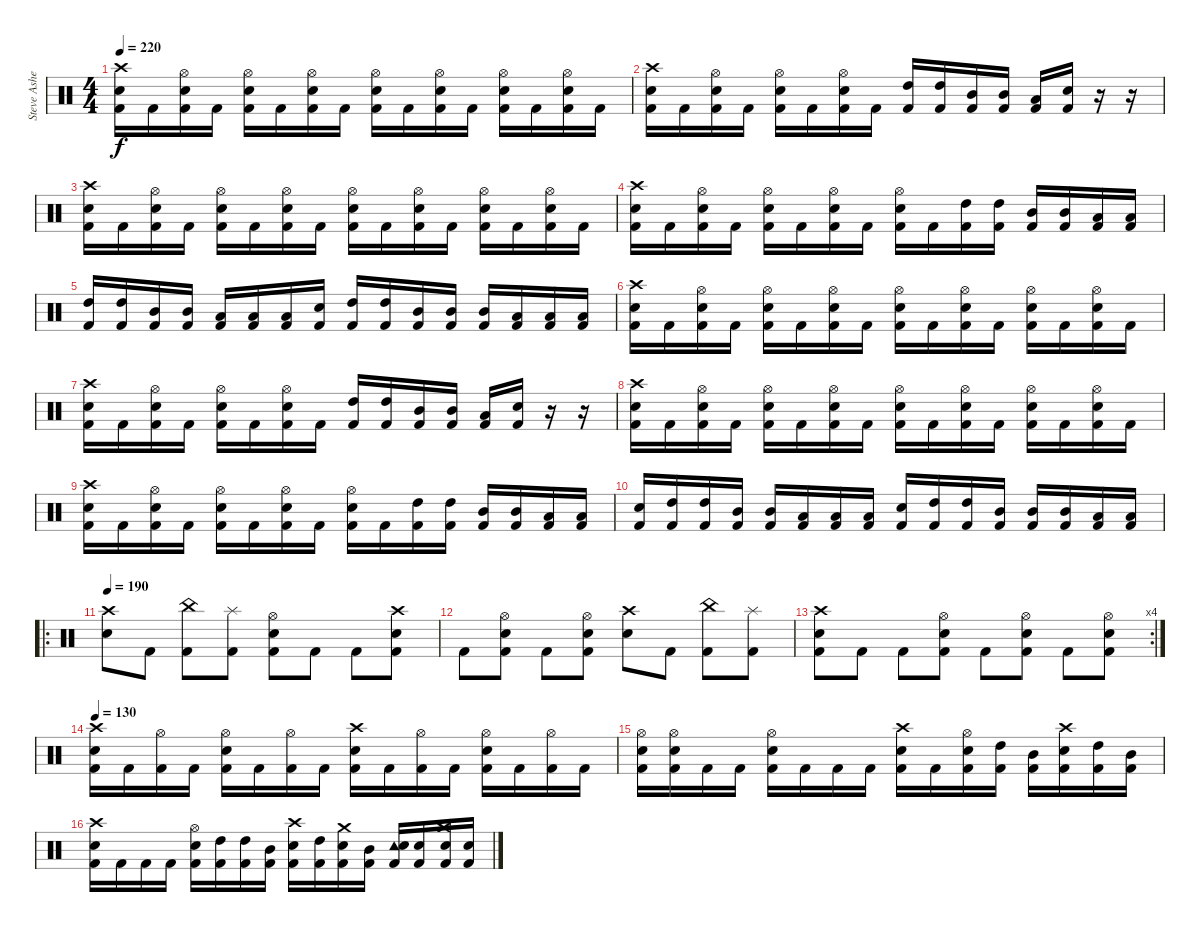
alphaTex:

\track ("Steve Asheim" "Steve Ashe") {instrument percussion}
\staff {score}
\articulation defaults
\ts (4 4)
\tempo 220
\clef neutral
\ks c
("Crash high (hit)" "Electric Snare (hit)" "Kick (hit) 2").16{dy f} "Kick (hit) 2".16 ("Hi-Hat (open)" "Electric Snare (hit)" "Kick (hit) 2").16 "Kick (hit) 2".16 ("Hi-Hat (open)" "Electric Snare (hit)" "Kick (hit) 2").16 "Kick (hit) 2".16 ("Hi-Hat (open)" "Electric Snare (hit)" "Kick (hit) 2").16 "Kick (hit) 2".16 ("Hi-Hat (open)" "Electric Snare (hit)" "Kick (hit) 2").16 "Kick (hit) 2".16 ("Hi-Hat (open)" "Electric Snare (hit)" "Kick (hit) 2").16 "Kick (hit) 2".16 ("Hi-Hat (open)" "Electric Snare (hit)" "Kick (hit) 2").16 "Kick (hit) 2".16 ("Hi-Hat (open)" "Electric Snare (hit)" "Kick (hit) 2").16 "Kick (hit) 2".16 |
("Crash high (hit)" "Electric Snare (hit)" "Kick (hit) 2").16 "Kick (hit) 2".16 ("Hi-Hat (open)" "Electric Snare (hit)" "Kick (hit) 2").16 "Kick (hit) 2".16 ("Hi-Hat (open)" "Electric Snare (hit)" "Kick (hit) 2").16 "Kick (hit) 2".16 ("Hi-Hat (open)" "Electric Snare (hit)" "Kick (hit) 2").16 "Kick (hit) 2".16 ("High Tom (hit)" "Kick (hit) 2").16 ("High Tom (hit)" "Kick (hit) 2").16 ("Mid Tom (hit)" "Kick (hit) 2").16 ("Mid Tom (hit)" "Kick (hit) 2").16 ("Low Tom (hit)" "Kick (hit) 2").16 ("Electric Snare (hit)" "Kick (hit) 2").16 r.16 r.16 |
("Crash high (hit)" "Electric Snare (hit)" "Kick (hit) 2").16 "Kick (hit) 2".16 ("Hi-Hat (open)" "Electric Snare (hit)" "Kick (hit) 2").16 "Kick (hit) 2".16 ("Hi-Hat (open)" "Electric Snare (hit)" "Kick (hit) 2").16 "Kick (hit) 2".16 ("Hi-Hat (open)" "Electric Snare (hit)" "Kick (hit) 2").16 "Kick (hit) 2".16 ("Hi-Hat (open)" "Electric Snare (hit)" "Kick (hit) 2").16 "Kick (hit) 2".16 ("Hi-Hat (open)" "Electric Snare (hit)" "Kick (hit) 2").16 "Kick (hit) 2".16 ("Hi-Hat (open)" "Electric Snare (hit)" "Kick (hit) 2").16 "Kick (hit) 2".16 ("Hi-Hat (open)" "Electric Snare (hit)" "Kick (hit) 2").16 "Kick (hit) 2".16 |
("Crash high (hit)" "Electric Snare (hit)" "Kick (hit) 2").16 "Kick (hit) 2".16 ("Hi-Hat (open)" "Electric Snare (hit)" "Kick (hit) 2").16 "Kick (hit) 2".16 ("Hi-Hat (open)" "Electric Snare (hit)" "Kick (hit) 2").16 "Kick (hit) 2".16 ("Hi-Hat (open)" "Electric Snare (hit)" "Kick (hit) 2").16 "Kick (hit) 2".16 ("Hi-Hat (open)" "Electric Snare (hit)" "Kick (hit) 2").16 "Kick (hit) 2".16 ("High Tom (hit)" "Kick (hit) 2").16 ("High Tom (hit)" "Kick (hit) 2").16 ("Mid Tom (hit)" "Kick (hit) 2").16 ("Mid Tom (hit)" "Kick (hit) 2").16 ("Low Tom (hit)" "Kick (hit) 2").16 ("Low Tom (hit)" "Kick (hit) 2").16 |
("High Tom (hit)" "Kick (hit) 2").16 ("High Tom (hit)" "Kick (hit) 2").16 ("Mid Tom (hit)" "Kick (hit) 2").16 ("Mid Tom (hit)" "Kick (hit) 2").16 ("Low Tom (hit)" "Kick (hit) 2").16 ("Low Tom (hit)" "Kick (hit) 2").16 ("Low Tom (hit)" "Kick (hit) 2").16 ("Electric Snare (hit)" "Kick (hit) 2").16 ("High Tom (hit)" "Kick (hit) 2").16 ("High Tom (hit)" "Kick (hit) 2").16 ("Mid Tom (hit)" "Kick (hit) 2").16 ("Mid Tom (hit)" "Kick (hit) 2").16 ("Mid Tom (hit)" "Kick (hit) 2").16 ("Low Tom (hit)" "Kick (hit) 2").16 ("Low Tom (hit)" "Kick (hit) 2").16 ("Low Tom (hit)" "Kick (hit) 2").16 |
("Crash high (hit)" "Electric Snare (hit)" "Kick (hit) 2").16 "Kick (hit) 2".16 ("Hi-Hat (open)" "Electric Snare (hit)" "Kick (hit) 2").16 "Kick (hit) 2".16 ("Hi-Hat (open)" "Electric Snare (hit)" "Kick (hit) 2").16 "Kick (hit) 2".16 ("Hi-Hat (open)" "Electric Snare (hit)" "Kick (hit) 2").16 "Kick (hit) 2".16 ("Hi-Hat (open)" "Electric Snare (hit)" "Kick (hit) 2").16 "Kick (hit) 2".16 ("Hi-Hat (open)" "Electric Snare (hit)" "Kick (hit) 2").16 "Kick (hit) 2".16 ("Hi-Hat (open)" "Electric Snare (hit)" "Kick (hit) 2").16 "Kick (hit) 2".16 ("Hi-Hat (open)" "Electric Snare (hit)" "Kick (hit) 2").16 "Kick (hit) 2".16 |
("Crash high (hit)" "Electric Snare (hit)" "Kick (hit) 2").16 "Kick (hit) 2".16 ("Hi-Hat (open)" "Electric Snare (hit)" "Kick (hit) 2").16 "Kick (hit) 2".16 ("Hi-Hat (open)" "Electric Snare (hit)" "Kick (hit) 2").16 "Kick (hit) 2".16 ("Hi-Hat (open)" "Electric Snare (hit)" "Kick (hit) 2").16 "Kick (hit) 2".16 ("High Tom (hit)" "Kick (hit) 2").16 ("High Tom (hit)" "Kick (hit) 2").16 ("Mid Tom (hit)" "Kick (hit) 2").16 ("Mid Tom (hit)" "Kick (hit) 2").16 ("Low Tom (hit)" "Kick (hit) 2").16 ("Electric Snare (hit)" "Kick (hit) 2").16 r.16 r.16 |
("Crash high (hit)" "Electric Snare (hit)" "Kick (hit) 2").16 "Kick (hit) 2".16 ("Hi-Hat (open)" "Electric Snare (hit)" "Kick (hit) 2").16 "Kick (hit) 2".16 ("Hi-Hat (open)" "Electric Snare (hit)" "Kick (hit) 2").16 "Kick (hit) 2".16 ("Hi-Hat (open)" "Electric Snare (hit)" "Kick (hit) 2").16 "Kick (hit) 2".16 ("Hi-Hat (open)" "Electric Snare (hit)" "Kick (hit) 2").16 "Kick (hit) 2".16 ("Hi-Hat (open)" "Electric Snare (hit)" "Kick (hit) 2").16 "Kick (hit) 2".16 ("Hi-Hat (open)" "Electric Snare (hit)" "Kick (hit) 2").16 "Kick (hit) 2".16 ("Hi-Hat (open)" "Electric Snare (hit)" "Kick (hit) 2").16 "Kick (hit) 2".16 |
("Crash high (hit)" "Electric Snare (hit)" "Kick (hit) 2").16 "Kick (hit) 2".16 ("Hi-Hat (open)" "Electric Snare (hit)" "Kick (hit) 2").16 "Kick (hit) 2".16 ("Hi-Hat (open)" "Electric Snare (hit)" "Kick (hit) 2").16 "Kick (hit) 2".16 ("Hi-Hat (open)" "Electric Snare (hit)" "Kick (hit) 2").16 "Kick (hit) 2".16 ("Hi-Hat (open)" "Electric Snare (hit)" "Kick (hit) 2").16 "Kick (hit) 2".16 ("High Tom (hit)" "Kick (hit) 2").16 ("High Tom (hit)" "Kick (hit) 2").16 ("Mid Tom (hit)" "Kick (hit) 2").16 ("Mid Tom (hit)" "Kick (hit) 2").16 ("Low Tom (hit)" "Kick (hit) 2").16 ("Low Tom (hit)" "Kick (hit) 2").16 |
("Electric Snare (hit)" "Kick (hit) 2").16 ("High Tom (hit)" "Kick (hit) 2").16 ("High Tom (hit)" "Kick (hit) 2").16 ("Mid Tom (hit)" "Kick (hit) 2").16 ("Mid Tom (hit)" "Kick (hit) 2").16 ("Low Tom (hit)" "Kick (hit) 2").16 ("Low Tom (hit)" "Kick (hit) 2").16 ("Low Tom (hit)" "Kick (hit) 2").16 ("Electric Snare (hit)" "Kick (hit) 2").16 ("High Tom (hit)" "Kick (hit) 2").16 ("High Tom (hit)" "Kick (hit) 2").16 ("Mid Tom (hit)" "Kick (hit) 2").16 ("Mid Tom (hit)" "Kick (hit) 2").16 ("Mid Tom (hit)" "Kick (hit) 2").16 ("Low Tom (hit)" "Kick (hit) 2").16 ("Low Tom (hit)" "Kick (hit) 2").16 |
\ro
\tempo 190
("Crash high (hit)" "Electric Snare (hit)").8 "Kick (hit) 2".8 ("China (hit)" "Kick (hit) 2").8 ("Splash (hit)" "Kick (hit) 2").8 ("Hi-Hat (open)" "Electric Snare (hit)" "Kick (hit) 2").8 "Kick (hit) 2".8 "Kick (hit) 2".8 ("Crash high (hit)" "Electric Snare (hit)" "Kick (hit) 2").8 |
"Kick (hit) 2".8 ("Hi-Hat (open)" "Electric Snare (hit)" "Kick (hit) 2").8 "Kick (hit) 2".8 ("Hi-Hat (open)" "Electric Snare (hit)" "Kick (hit) 2").8 ("Crash high (hit)" "Electric Snare (hit)").8 "Kick (hit) 2".8 ("China (hit)" "Kick (hit) 2").8 ("Splash (hit)" "Kick (hit) 2").8 |
\rc 4
("Crash high (hit)" "Electric Snare (hit)" "Kick (hit) 2").8 "Kick (hit) 2".8 "Kick (hit) 2".8 ("Hi-Hat (open)" "Electric Snare (hit)" "Kick (hit) 2").8 "Kick (hit) 2".8 ("Hi-Hat (open)" "Electric Snare (hit)" "Kick (hit) 2").8 "Kick (hit) 2".8 ("Hi-Hat (open)" "Electric Snare (hit)" "Kick (hit) 2").8 |
\tempo 130
("Crash high (hit)" "Electric Snare (hit)" "Kick (hit) 2").16 "Kick (hit) 2".16 ("Hi-Hat (open)" "Kick (hit) 2").16 "Kick (hit) 2".16 ("Hi-Hat (open)" "Electric Snare (hit)" "Kick (hit) 2").16 "Kick (hit) 2".16 ("Hi-Hat (open)" "Kick (hit) 2").16 "Kick (hit) 2".16 ("Crash high (hit)" "Electric Snare (hit)" "Kick (hit) 2").16 "Kick (hit) 2".16 ("Hi-Hat (open)" "Kick (hit) 2").16 "Kick (hit) 2".16 ("Hi-Hat (open)" "Electric Snare (hit)" "Kick (hit) 2").16 "Kick (hit) 2".16 ("Hi-Hat (open)" "Kick (hit) 2").16 "Kick (hit) 2".16 |
("Hi-Hat (open)" "Electric Snare (hit)" "Kick (hit) 2").16 ("Hi-Hat (open)" "Electric Snare (hit)" "Kick (hit) 2").16 "Kick (hit) 2".16 "Kick (hit) 2".16 ("Hi-Hat (open)" "Electric Snare (hit)" "Kick (hit) 2").16 "Kick (hit) 2".16 "Kick (hit) 2".16 "Kick (hit) 2".16 ("Crash high (hit)" "Electric Snare (hit)" "Kick (hit) 2").16 "Kick (hit) 2".16 ("Hi-Hat (open)" "Electric Snare (hit)" "Kick (hit) 2").16 ("High Tom (hit)" "Kick (hit) 2").16 ("Mid Tom (hit)" "Kick (hit) 2").16 ("Crash high (hit)" "Electric Snare (hit)" "Kick (hit) 2").16 ("High Tom (hit)" "Kick (hit) 2").16 ("Mid Tom (hit)" "Kick (hit) 2").16 |
("Crash high (hit)" "Electric Snare (hit)" "Kick (hit) 2").16 "Kick (hit) 2".16 "Kick (hit) 2".16 "Kick (hit) 2".16 ("Hi-Hat (open)" "Electric Snare (hit)" "Kick (hit) 2").16 ("High Tom (hit)" "Kick (hit) 2").16 ("High Tom (hit)" "Kick (hit) 2").16 ("Mid Tom (hit)" "Kick (hit) 2").16 ("Crash high (hit)" "Electric Snare (hit)" "Kick (hit) 2").16 ("High Tom (hit)" "Kick (hit) 2").16 ("Crash medium (hit)" "Electric Snare (hit)" "Kick (hit) 2").16 ("Mid Tom (hit)" "Kick (hit) 2").16 ("Tambourine (hit)" "Electric Snare (hit)" "Kick (hit) 2").16 ("Snare (hit) 2" "Kick (hit) 2").16 ("Crash medium (hit)" "Snare (hit) 2" "Kick (hit) 2").16 ("Snare (hit) 2" "Kick (hit) 2").16
